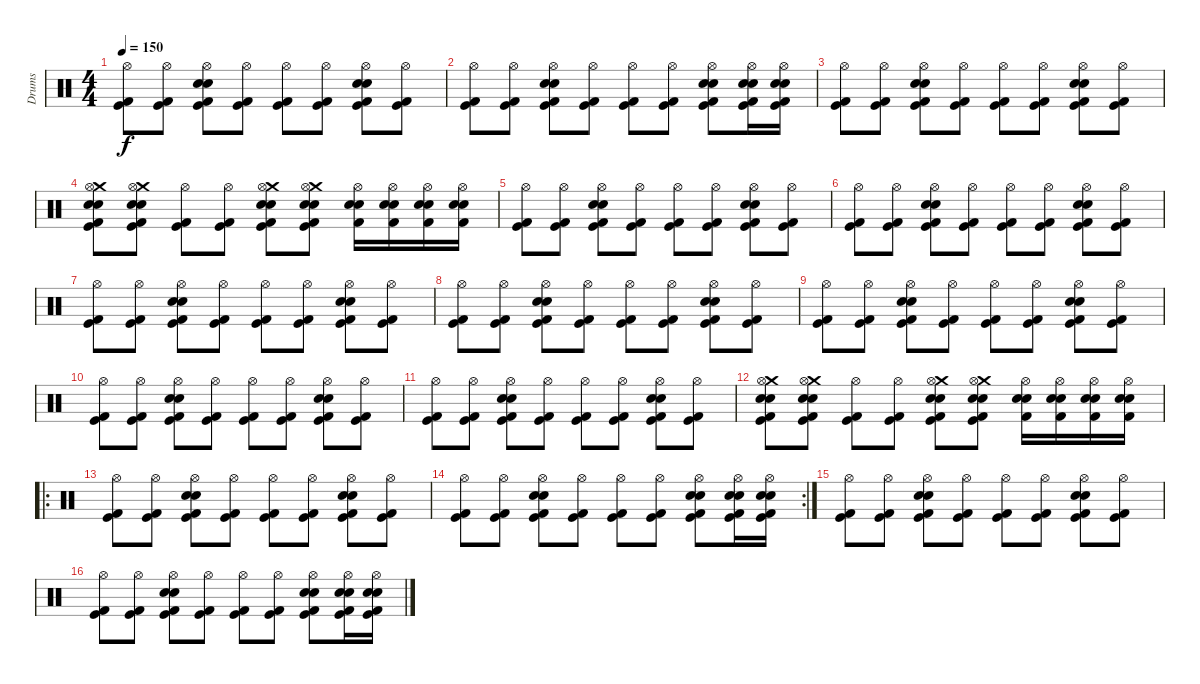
\track ("Drums" "Drums") {instrument percussion}
\staff {score}
\articulation defaults
\ts (4 4)
\tempo 150
\clef neutral
\ks c
("Hi-Hat (open)" "Kick (hit)" "Kick (hit) 2").8{dy f} ("Hi-Hat (open)" "Kick (hit)" "Kick (hit) 2").8 ("Snare (hit) 2" "Electric Snare (hit)" "Hi-Hat (open)" "Kick (hit)" "Kick (hit) 2").8 ("Hi-Hat (open)" "Kick (hit)" "Kick (hit) 2").8 ("Hi-Hat (open)" "Kick (hit)" "Kick (hit) 2").8 ("Hi-Hat (open)" "Kick (hit)" "Kick (hit) 2").8 ("Snare (hit) 2" "Electric Snare (hit)" "Hi-Hat (open)" "Kick (hit)" "Kick (hit) 2").8 ("Hi-Hat (open)" "Kick (hit)" "Kick (hit) 2").8 |
("Hi-Hat (open)" "Kick (hit)" "Kick (hit) 2").8 ("Hi-Hat (open)" "Kick (hit)" "Kick (hit) 2").8 ("Snare (hit) 2" "Electric Snare (hit)" "Hi-Hat (open)" "Kick (hit)" "Kick (hit) 2").8 ("Hi-Hat (open)" "Kick (hit)" "Kick (hit) 2").8 ("Hi-Hat (open)" "Kick (hit)" "Kick (hit) 2").8 ("Hi-Hat (open)" "Kick (hit)" "Kick (hit) 2").8 ("Snare (hit) 2" "Electric Snare (hit)" "Hi-Hat (open)" "Kick (hit)" "Kick (hit) 2").8 ("Snare (hit) 2" "Electric Snare (hit)" "Hi-Hat (open)" "Kick (hit)" "Kick (hit) 2").16 ("Snare (hit) 2" "Electric Snare (hit)" "Hi-Hat (open)" "Kick (hit)" "Kick (hit) 2").16 |
("Hi-Hat (open)" "Kick (hit)" "Kick (hit) 2").8 ("Hi-Hat (open)" "Kick (hit)" "Kick (hit) 2").8 ("Snare (hit) 2" "Electric Snare (hit)" "Hi-Hat (open)" "Kick (hit)" "Kick (hit) 2").8 ("Hi-Hat (open)" "Kick (hit)" "Kick (hit) 2").8 ("Hi-Hat (open)" "Kick (hit)" "Kick (hit) 2").8 ("Hi-Hat (open)" "Kick (hit)" "Kick (hit) 2").8 ("Snare (hit) 2" "Electric Snare (hit)" "Hi-Hat (open)" "Kick (hit)" "Kick (hit) 2").8 ("Hi-Hat (open)" "Kick (hit)" "Kick (hit) 2").8 |
("Crash medium (hit)" "Snare (hit) 2" "Electric Snare (hit)" "Hi-Hat (open)" "Kick (hit)" "Kick (hit) 2").8 ("Crash medium (hit)" "Snare (hit) 2" "Electric Snare (hit)" "Hi-Hat (open)" "Kick (hit)" "Kick (hit) 2").8 ("Hi-Hat (open)" "Kick (hit)" "Kick (hit) 2").8 ("Hi-Hat (open)" "Kick (hit)" "Kick (hit) 2").8 ("Crash medium (hit)" "Snare (hit) 2" "Electric Snare (hit)" "Hi-Hat (open)" "Kick (hit)" "Kick (hit) 2").8 ("Crash medium (hit)" "Snare (hit) 2" "Electric Snare (hit)" "Hi-Hat (open)" "Kick (hit)" "Kick (hit) 2").8 ("Hi-Hat (open)" "Kick (hit) 2" "Electric Snare (hit)" "Snare (hit) 2").16 ("Hi-Hat (open)" "Kick (hit) 2" "Electric Snare (hit)" "Snare (hit) 2").16 ("Hi-Hat (open)" "Kick (hit) 2" "Electric Snare (hit)" "Snare (hit) 2").16 ("Hi-Hat (open)" "Kick (hit) 2" "Electric Snare (hit)" "Snare (hit) 2").16 |
("Hi-Hat (open)" "Kick (hit)" "Kick (hit) 2").8 ("Hi-Hat (open)" "Kick (hit)" "Kick (hit) 2").8 ("Snare (hit) 2" "Electric Snare (hit)" "Hi-Hat (open)" "Kick (hit)" "Kick (hit) 2").8 ("Hi-Hat (open)" "Kick (hit)" "Kick (hit) 2").8 ("Hi-Hat (open)" "Kick (hit)" "Kick (hit) 2").8 ("Hi-Hat (open)" "Kick (hit)" "Kick (hit) 2").8 ("Snare (hit) 2" "Electric Snare (hit)" "Hi-Hat (open)" "Kick (hit)" "Kick (hit) 2").8 ("Hi-Hat (open)" "Kick (hit)" "Kick (hit) 2").8 |
("Hi-Hat (open)" "Kick (hit)" "Kick (hit) 2").8 ("Hi-Hat (open)" "Kick (hit)" "Kick (hit) 2").8 ("Snare (hit) 2" "Electric Snare (hit)" "Hi-Hat (open)" "Kick (hit)" "Kick (hit) 2").8 ("Hi-Hat (open)" "Kick (hit)" "Kick (hit) 2").8 ("Hi-Hat (open)" "Kick (hit)" "Kick (hit) 2").8 ("Hi-Hat (open)" "Kick (hit)" "Kick (hit) 2").8 ("Snare (hit) 2" "Electric Snare (hit)" "Hi-Hat (open)" "Kick (hit)" "Kick (hit) 2").8 ("Hi-Hat (open)" "Kick (hit)" "Kick (hit) 2").8 |
("Hi-Hat (open)" "Kick (hit)" "Kick (hit) 2").8 ("Hi-Hat (open)" "Kick (hit)" "Kick (hit) 2").8 ("Snare (hit) 2" "Electric Snare (hit)" "Hi-Hat (open)" "Kick (hit)" "Kick (hit) 2").8 ("Hi-Hat (open)" "Kick (hit)" "Kick (hit) 2").8 ("Hi-Hat (open)" "Kick (hit)" "Kick (hit) 2").8 ("Hi-Hat (open)" "Kick (hit)" "Kick (hit) 2").8 ("Snare (hit) 2" "Electric Snare (hit)" "Hi-Hat (open)" "Kick (hit)" "Kick (hit) 2").8 ("Hi-Hat (open)" "Kick (hit)" "Kick (hit) 2").8 |
("Hi-Hat (open)" "Kick (hit)" "Kick (hit) 2").8 ("Hi-Hat (open)" "Kick (hit)" "Kick (hit) 2").8 ("Snare (hit) 2" "Electric Snare (hit)" "Hi-Hat (open)" "Kick (hit)" "Kick (hit) 2").8 ("Hi-Hat (open)" "Kick (hit)" "Kick (hit) 2").8 ("Hi-Hat (open)" "Kick (hit)" "Kick (hit) 2").8 ("Hi-Hat (open)" "Kick (hit)" "Kick (hit) 2").8 ("Snare (hit) 2" "Electric Snare (hit)" "Hi-Hat (open)" "Kick (hit)" "Kick (hit) 2").8 ("Hi-Hat (open)" "Kick (hit)" "Kick (hit) 2").8 |
("Hi-Hat (open)" "Kick (hit)" "Kick (hit) 2").8 ("Hi-Hat (open)" "Kick (hit)" "Kick (hit) 2").8 ("Snare (hit) 2" "Electric Snare (hit)" "Hi-Hat (open)" "Kick (hit)" "Kick (hit) 2").8 ("Hi-Hat (open)" "Kick (hit)" "Kick (hit) 2").8 ("Hi-Hat (open)" "Kick (hit)" "Kick (hit) 2").8 ("Hi-Hat (open)" "Kick (hit)" "Kick (hit) 2").8 ("Snare (hit) 2" "Electric Snare (hit)" "Hi-Hat (open)" "Kick (hit)" "Kick (hit) 2").8 ("Hi-Hat (open)" "Kick (hit)" "Kick (hit) 2").8 |
("Hi-Hat (open)" "Kick (hit)" "Kick (hit) 2").8 ("Hi-Hat (open)" "Kick (hit)" "Kick (hit) 2").8 ("Snare (hit) 2" "Electric Snare (hit)" "Hi-Hat (open)" "Kick (hit)" "Kick (hit) 2").8 ("Hi-Hat (open)" "Kick (hit)" "Kick (hit) 2").8 ("Hi-Hat (open)" "Kick (hit)" "Kick (hit) 2").8 ("Hi-Hat (open)" "Kick (hit)" "Kick (hit) 2").8 ("Snare (hit) 2" "Electric Snare (hit)" "Hi-Hat (open)" "Kick (hit)" "Kick (hit) 2").8 ("Hi-Hat (open)" "Kick (hit)" "Kick (hit) 2").8 |
("Hi-Hat (open)" "Kick (hit)" "Kick (hit) 2").8 ("Hi-Hat (open)" "Kick (hit)" "Kick (hit) 2").8 ("Snare (hit) 2" "Electric Snare (hit)" "Hi-Hat (open)" "Kick (hit)" "Kick (hit) 2").8 ("Hi-Hat (open)" "Kick (hit)" "Kick (hit) 2").8 ("Hi-Hat (open)" "Kick (hit)" "Kick (hit) 2").8 ("Hi-Hat (open)" "Kick (hit)" "Kick (hit) 2").8 ("Snare (hit) 2" "Electric Snare (hit)" "Hi-Hat (open)" "Kick (hit)" "Kick (hit) 2").8 ("Hi-Hat (open)" "Kick (hit)" "Kick (hit) 2").8 |
("Crash medium (hit)" "Snare (hit) 2" "Electric Snare (hit)" "Hi-Hat (open)" "Kick (hit)" "Kick (hit) 2").8 ("Crash medium (hit)" "Snare (hit) 2" "Electric Snare (hit)" "Hi-Hat (open)" "Kick (hit)" "Kick (hit) 2").8 ("Hi-Hat (open)" "Kick (hit)" "Kick (hit) 2").8 ("Hi-Hat (open)" "Kick (hit)" "Kick (hit) 2").8 ("Crash medium (hit)" "Snare (hit) 2" "Electric Snare (hit)" "Hi-Hat (open)" "Kick (hit)" "Kick (hit) 2").8 ("Crash medium (hit)" "Snare (hit) 2" "Electric Snare (hit)" "Hi-Hat (open)" "Kick (hit)" "Kick (hit) 2").8 ("Hi-Hat (open)" "Kick (hit) 2" "Electric Snare (hit)" "Snare (hit) 2").16 ("Hi-Hat (open)" "Kick (hit) 2" "Electric Snare (hit)" "Snare (hit) 2").16 ("Hi-Hat (open)" "Kick (hit) 2" "Electric Snare (hit)" "Snare (hit) 2").16 ("Hi-Hat (open)" "Kick (hit) 2" "Electric Snare (hit)" "Snare (hit) 2").16 |
\ro
("Hi-Hat (open)" "Kick (hit)" "Kick (hit) 2").8 ("Hi-Hat (open)" "Kick (hit)" "Kick (hit) 2").8 ("Snare (hit) 2" "Electric Snare (hit)" "Hi-Hat (open)" "Kick (hit)" "Kick (hit) 2").8 ("Hi-Hat (open)" "Kick (hit)" "Kick (hit) 2").8 ("Hi-Hat (open)" "Kick (hit)" "Kick (hit) 2").8 ("Hi-Hat (open)" "Kick (hit)" "Kick (hit) 2").8 ("Snare (hit) 2" "Electric Snare (hit)" "Hi-Hat (open)" "Kick (hit)" "Kick (hit) 2").8 ("Hi-Hat (open)" "Kick (hit)" "Kick (hit) 2").8 |
\rc 2
("Hi-Hat (open)" "Kick (hit)" "Kick (hit) 2").8 ("Hi-Hat (open)" "Kick (hit)" "Kick (hit) 2").8 ("Snare (hit) 2" "Electric Snare (hit)" "Hi-Hat (open)" "Kick (hit)" "Kick (hit) 2").8 ("Hi-Hat (open)" "Kick (hit)" "Kick (hit) 2").8 ("Hi-Hat (open)" "Kick (hit)" "Kick (hit) 2").8 ("Hi-Hat (open)" "Kick (hit)" "Kick (hit) 2").8 ("Snare (hit) 2" "Electric Snare (hit)" "Hi-Hat (open)" "Kick (hit)" "Kick (hit) 2").8 ("Snare (hit) 2" "Electric Snare (hit)" "Hi-Hat (open)" "Kick (hit)" "Kick (hit) 2").16 ("Snare (hit) 2" "Electric Snare (hit)" "Hi-Hat (open)" "Kick (hit)" "Kick (hit) 2").16 |
("Hi-Hat (open)" "Kick (hit)" "Kick (hit) 2").8 ("Hi-Hat (open)" "Kick (hit)" "Kick (hit) 2").8 ("Snare (hit) 2" "Electric Snare (hit)" "Hi-Hat (open)" "Kick (hit)" "Kick (hit) 2").8 ("Hi-Hat (open)" "Kick (hit)" "Kick (hit) 2").8 ("Hi-Hat (open)" "Kick (hit)" "Kick (hit) 2").8 ("Hi-Hat (open)" "Kick (hit)" "Kick (hit) 2").8 ("Snare (hit) 2" "Electric Snare (hit)" "Hi-Hat (open)" "Kick (hit)" "Kick (hit) 2").8 ("Hi-Hat (open)" "Kick (hit)" "Kick (hit) 2").8 |
("Hi-Hat (open)" "Kick (hit)" "Kick (hit) 2").8 ("Hi-Hat (open)" "Kick (hit)" "Kick (hit) 2").8 ("Snare (hit) 2" "Electric Snare (hit)" "Hi-Hat (open)" "Kick (hit)" "Kick (hit) 2").8 ("Hi-Hat (open)" "Kick (hit)" "Kick (hit) 2").8 ("Hi-Hat (open)" "Kick (hit)" "Kick (hit) 2").8 ("Hi-Hat (open)" "Kick (hit)" "Kick (hit) 2").8 ("Snare (hit) 2" "Electric Snare (hit)" "Hi-Hat (open)" "Kick (hit)" "Kick (hit) 2").8 ("Snare (hit) 2" "Electric Snare (hit)" "Hi-Hat (open)" "Kick (hit)" "Kick (hit) 2").16 ("Snare (hit) 2" "Electric Snare (hit)" "Hi-Hat (open)" "Kick (hit)" "Kick (hit) 2").16
